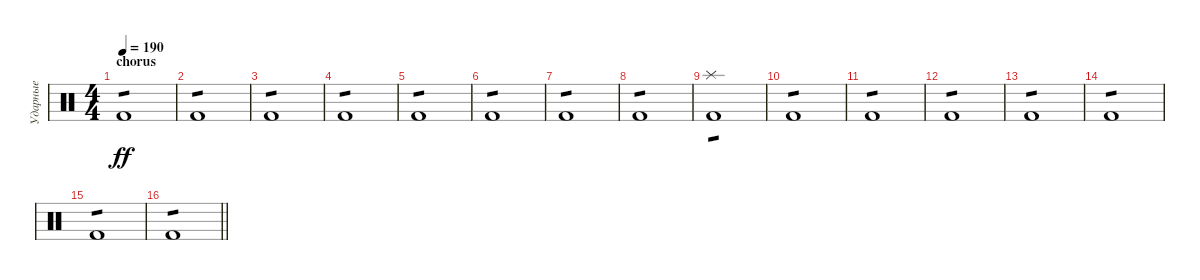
\track ("Ударные" "Ударные") {instrument percussion}
\staff {score}
\articulation defaults
\ts (4 4)
\section ("" "chorus")
\tempo 190
\clef neutral
\ks c "Kick (hit) 2".1{tp 1 dy ff}
|
"Kick (hit) 2".1{tp 1} |
"Kick (hit) 2".1{tp 1} |
"Kick (hit) 2".1{tp 1} |
"Kick (hit) 2".1{tp 1} |
"Kick (hit) 2".1{tp 1} |
"Kick (hit) 2".1{tp 1} |
"Kick (hit) 2".1{tp 1} |
("Kick (hit) 2" "Splash (hit)").1{tp 1} |
"Kick (hit) 2".1{tp 1} |
"Kick (hit) 2".1{tp 1} |
"Kick (hit) 2".1{tp 1} |
"Kick (hit) 2".1{tp 1} |
"Kick (hit) 2".1{tp 1} |
"Kick (hit) 2".1{tp 1} |
\barLineRight lightlight "Kick (hit) 2".1{tp 1}
